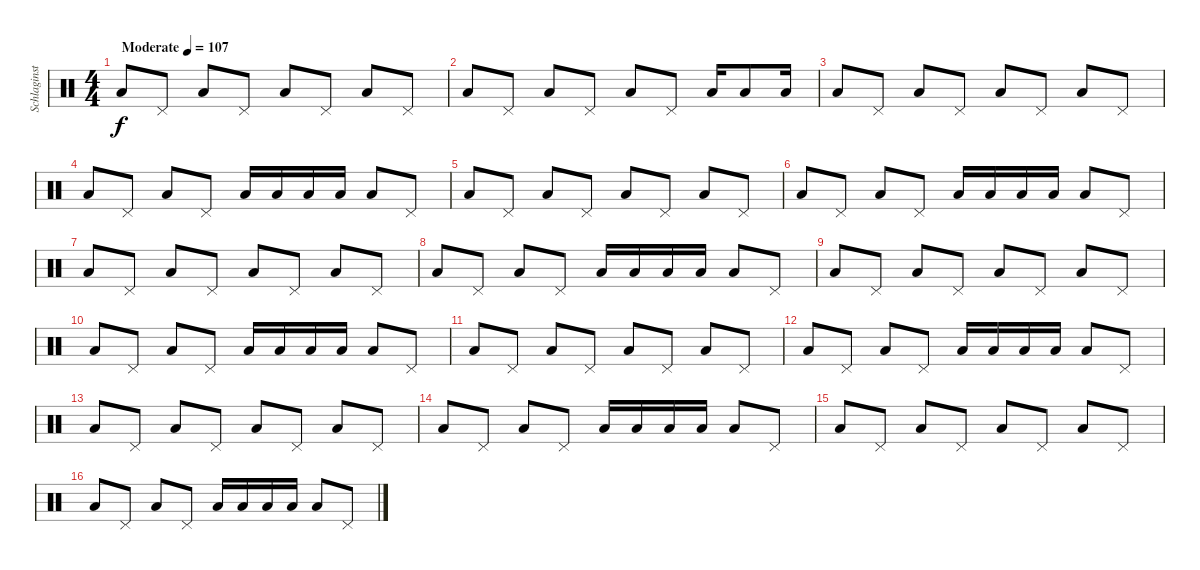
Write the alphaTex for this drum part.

\track ("Schlaginstrumente - Auswahl" "Schlaginst") {instrument percussion}
\staff {score}
\articulation defaults
\ts (4 4)
\tempo (107 "Moderate")
\clef neutral
\ks c "Low Floor Tom (hit)".8{dy f} "Pedal Hi-Hat (hit)".8 "Low Floor Tom (hit)".8 "Pedal Hi-Hat (hit)".8 "Low Floor Tom (hit)".8 "Pedal Hi-Hat (hit)".8 "Low Floor Tom (hit)".8 "Pedal Hi-Hat (hit)".8
|
"Low Floor Tom (hit)".8 "Pedal Hi-Hat (hit)".8 "Low Floor Tom (hit)".8 "Pedal Hi-Hat (hit)".8 "Low Floor Tom (hit)".8 "Pedal Hi-Hat (hit)".8 "Low Floor Tom (hit)".16 "Low Floor Tom (hit)".8 "Low Floor Tom (hit)".16 |
"Low Floor Tom (hit)".8 "Pedal Hi-Hat (hit)".8 "Low Floor Tom (hit)".8 "Pedal Hi-Hat (hit)".8 "Low Floor Tom (hit)".8 "Pedal Hi-Hat (hit)".8 "Low Floor Tom (hit)".8 "Pedal Hi-Hat (hit)".8 |
"Low Floor Tom (hit)".8 "Pedal Hi-Hat (hit)".8 "Low Floor Tom (hit)".8 "Pedal Hi-Hat (hit)".8 "Low Floor Tom (hit)".16 "Low Floor Tom (hit)".16 "Low Floor Tom (hit)".16 "Low Floor Tom (hit)".16 "Low Floor Tom (hit)".8 "Pedal Hi-Hat (hit)".8 |
"Low Floor Tom (hit)".8 "Pedal Hi-Hat (hit)".8 "Low Floor Tom (hit)".8 "Pedal Hi-Hat (hit)".8 "Low Floor Tom (hit)".8 "Pedal Hi-Hat (hit)".8 "Low Floor Tom (hit)".8 "Pedal Hi-Hat (hit)".8 |
"Low Floor Tom (hit)".8 "Pedal Hi-Hat (hit)".8 "Low Floor Tom (hit)".8 "Pedal Hi-Hat (hit)".8 "Low Floor Tom (hit)".16 "Low Floor Tom (hit)".16 "Low Floor Tom (hit)".16 "Low Floor Tom (hit)".16 "Low Floor Tom (hit)".8 "Pedal Hi-Hat (hit)".8 |
"Low Floor Tom (hit)".8 "Pedal Hi-Hat (hit)".8 "Low Floor Tom (hit)".8 "Pedal Hi-Hat (hit)".8 "Low Floor Tom (hit)".8 "Pedal Hi-Hat (hit)".8 "Low Floor Tom (hit)".8 "Pedal Hi-Hat (hit)".8 |
"Low Floor Tom (hit)".8 "Pedal Hi-Hat (hit)".8 "Low Floor Tom (hit)".8 "Pedal Hi-Hat (hit)".8 "Low Floor Tom (hit)".16 "Low Floor Tom (hit)".16 "Low Floor Tom (hit)".16 "Low Floor Tom (hit)".16 "Low Floor Tom (hit)".8 "Pedal Hi-Hat (hit)".8 |
"Low Floor Tom (hit)".8 "Pedal Hi-Hat (hit)".8 "Low Floor Tom (hit)".8 "Pedal Hi-Hat (hit)".8 "Low Floor Tom (hit)".8 "Pedal Hi-Hat (hit)".8 "Low Floor Tom (hit)".8 "Pedal Hi-Hat (hit)".8 |
"Low Floor Tom (hit)".8 "Pedal Hi-Hat (hit)".8 "Low Floor Tom (hit)".8 "Pedal Hi-Hat (hit)".8 "Low Floor Tom (hit)".16 "Low Floor Tom (hit)".16 "Low Floor Tom (hit)".16 "Low Floor Tom (hit)".16 "Low Floor Tom (hit)".8 "Pedal Hi-Hat (hit)".8 |
"Low Floor Tom (hit)".8 "Pedal Hi-Hat (hit)".8 "Low Floor Tom (hit)".8 "Pedal Hi-Hat (hit)".8 "Low Floor Tom (hit)".8 "Pedal Hi-Hat (hit)".8 "Low Floor Tom (hit)".8 "Pedal Hi-Hat (hit)".8 |
"Low Floor Tom (hit)".8 "Pedal Hi-Hat (hit)".8 "Low Floor Tom (hit)".8 "Pedal Hi-Hat (hit)".8 "Low Floor Tom (hit)".16 "Low Floor Tom (hit)".16 "Low Floor Tom (hit)".16 "Low Floor Tom (hit)".16 "Low Floor Tom (hit)".8 "Pedal Hi-Hat (hit)".8 |
"Low Floor Tom (hit)".8 "Pedal Hi-Hat (hit)".8 "Low Floor Tom (hit)".8 "Pedal Hi-Hat (hit)".8 "Low Floor Tom (hit)".8 "Pedal Hi-Hat (hit)".8 "Low Floor Tom (hit)".8 "Pedal Hi-Hat (hit)".8 |
"Low Floor Tom (hit)".8 "Pedal Hi-Hat (hit)".8 "Low Floor Tom (hit)".8 "Pedal Hi-Hat (hit)".8 "Low Floor Tom (hit)".16 "Low Floor Tom (hit)".16 "Low Floor Tom (hit)".16 "Low Floor Tom (hit)".16 "Low Floor Tom (hit)".8 "Pedal Hi-Hat (hit)".8 |
"Low Floor Tom (hit)".8 "Pedal Hi-Hat (hit)".8 "Low Floor Tom (hit)".8 "Pedal Hi-Hat (hit)".8 "Low Floor Tom (hit)".8 "Pedal Hi-Hat (hit)".8 "Low Floor Tom (hit)".8 "Pedal Hi-Hat (hit)".8 |
"Low Floor Tom (hit)".8 "Pedal Hi-Hat (hit)".8 "Low Floor Tom (hit)".8 "Pedal Hi-Hat (hit)".8 "Low Floor Tom (hit)".16 "Low Floor Tom (hit)".16 "Low Floor Tom (hit)".16 "Low Floor Tom (hit)".16 "Low Floor Tom (hit)".8 "Pedal Hi-Hat (hit)".8
